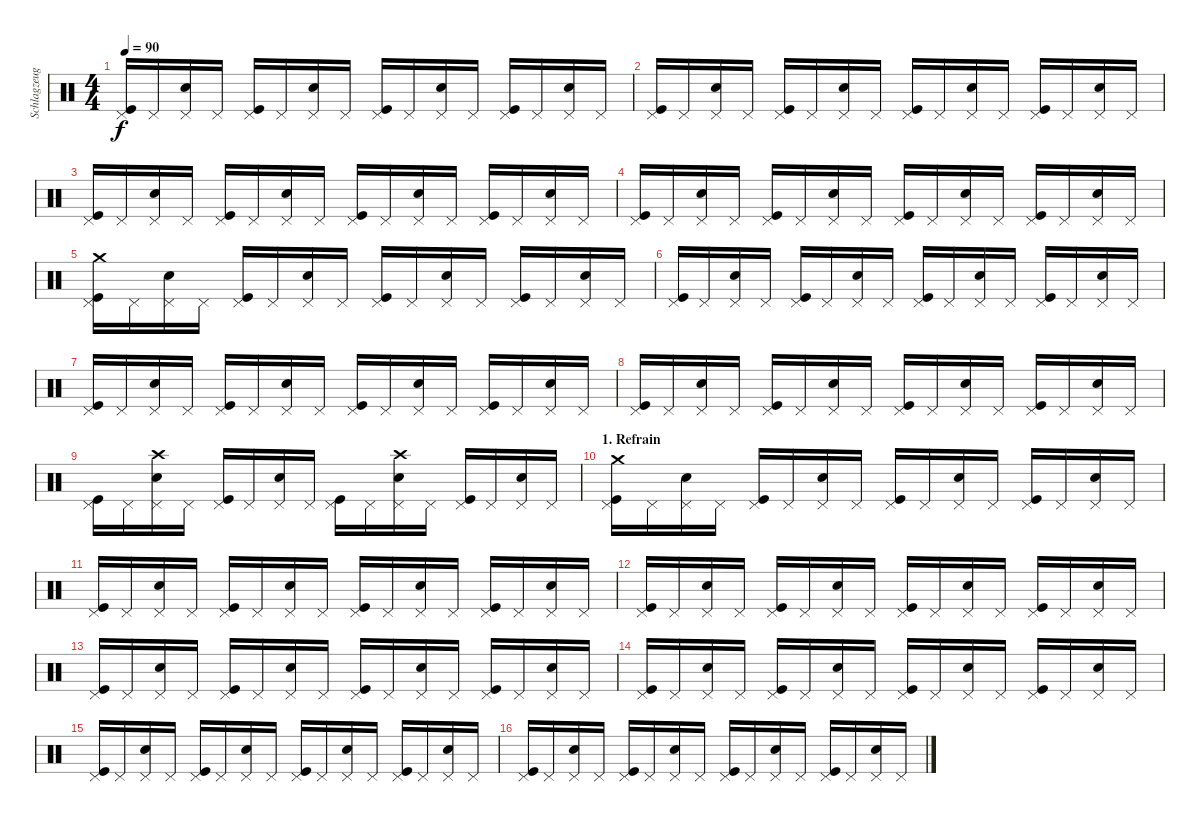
\track ("Schlagzeug" "Schlagzeug") {instrument percussion}
\staff {score}
\articulation defaults
\ts (4 4)
\tempo 90
\clef neutral
\ks c
("Pedal Hi-Hat (hit)" "Kick (hit)").16{dy f} "Pedal Hi-Hat (hit)".16 ("Pedal Hi-Hat (hit)" "Electric Snare (hit)").16 "Pedal Hi-Hat (hit)".16 ("Pedal Hi-Hat (hit)" "Kick (hit)").16 "Pedal Hi-Hat (hit)".16 ("Pedal Hi-Hat (hit)" "Electric Snare (hit)").16 "Pedal Hi-Hat (hit)".16 ("Pedal Hi-Hat (hit)" "Kick (hit)").16 "Pedal Hi-Hat (hit)".16 ("Pedal Hi-Hat (hit)" "Electric Snare (hit)").16 "Pedal Hi-Hat (hit)".16 ("Pedal Hi-Hat (hit)" "Kick (hit)").16 "Pedal Hi-Hat (hit)".16 ("Pedal Hi-Hat (hit)" "Electric Snare (hit)").16 "Pedal Hi-Hat (hit)".16 |
("Pedal Hi-Hat (hit)" "Kick (hit)").16 "Pedal Hi-Hat (hit)".16 ("Pedal Hi-Hat (hit)" "Electric Snare (hit)").16 "Pedal Hi-Hat (hit)".16 ("Pedal Hi-Hat (hit)" "Kick (hit)").16 "Pedal Hi-Hat (hit)".16 ("Pedal Hi-Hat (hit)" "Electric Snare (hit)").16 "Pedal Hi-Hat (hit)".16 ("Pedal Hi-Hat (hit)" "Kick (hit)").16 "Pedal Hi-Hat (hit)".16 ("Pedal Hi-Hat (hit)" "Electric Snare (hit)").16 "Pedal Hi-Hat (hit)".16 ("Pedal Hi-Hat (hit)" "Kick (hit)").16 "Pedal Hi-Hat (hit)".16 ("Pedal Hi-Hat (hit)" "Electric Snare (hit)").16 "Pedal Hi-Hat (hit)".16 |
("Pedal Hi-Hat (hit)" "Kick (hit)").16 "Pedal Hi-Hat (hit)".16 ("Pedal Hi-Hat (hit)" "Electric Snare (hit)").16 "Pedal Hi-Hat (hit)".16 ("Pedal Hi-Hat (hit)" "Kick (hit)").16 "Pedal Hi-Hat (hit)".16 ("Pedal Hi-Hat (hit)" "Electric Snare (hit)").16 "Pedal Hi-Hat (hit)".16 ("Pedal Hi-Hat (hit)" "Kick (hit)").16 "Pedal Hi-Hat (hit)".16 ("Pedal Hi-Hat (hit)" "Electric Snare (hit)").16 "Pedal Hi-Hat (hit)".16 ("Pedal Hi-Hat (hit)" "Kick (hit)").16 "Pedal Hi-Hat (hit)".16 ("Pedal Hi-Hat (hit)" "Electric Snare (hit)").16 "Pedal Hi-Hat (hit)".16 |
("Pedal Hi-Hat (hit)" "Kick (hit)").16 "Pedal Hi-Hat (hit)".16 ("Pedal Hi-Hat (hit)" "Electric Snare (hit)").16 "Pedal Hi-Hat (hit)".16 ("Pedal Hi-Hat (hit)" "Kick (hit)").16 "Pedal Hi-Hat (hit)".16 ("Pedal Hi-Hat (hit)" "Electric Snare (hit)").16 "Pedal Hi-Hat (hit)".16 ("Pedal Hi-Hat (hit)" "Kick (hit)").16 "Pedal Hi-Hat (hit)".16 ("Pedal Hi-Hat (hit)" "Electric Snare (hit)").16 "Pedal Hi-Hat (hit)".16 ("Pedal Hi-Hat (hit)" "Kick (hit)").16 "Pedal Hi-Hat (hit)".16 ("Pedal Hi-Hat (hit)" "Electric Snare (hit)").16 "Pedal Hi-Hat (hit)".16 |
("Pedal Hi-Hat (hit)" "Kick (hit)" "Crash medium (hit)").16 "Pedal Hi-Hat (hit)".16 ("Pedal Hi-Hat (hit)" "Electric Snare (hit)").16 "Pedal Hi-Hat (hit)".16 ("Pedal Hi-Hat (hit)" "Kick (hit)").16 "Pedal Hi-Hat (hit)".16 ("Pedal Hi-Hat (hit)" "Electric Snare (hit)").16 "Pedal Hi-Hat (hit)".16 ("Pedal Hi-Hat (hit)" "Kick (hit)").16 "Pedal Hi-Hat (hit)".16 ("Pedal Hi-Hat (hit)" "Electric Snare (hit)").16 "Pedal Hi-Hat (hit)".16 ("Pedal Hi-Hat (hit)" "Kick (hit)").16 "Pedal Hi-Hat (hit)".16 ("Pedal Hi-Hat (hit)" "Electric Snare (hit)").16 "Pedal Hi-Hat (hit)".16 |
("Pedal Hi-Hat (hit)" "Kick (hit)").16 "Pedal Hi-Hat (hit)".16 ("Pedal Hi-Hat (hit)" "Electric Snare (hit)").16 "Pedal Hi-Hat (hit)".16 ("Pedal Hi-Hat (hit)" "Kick (hit)").16 "Pedal Hi-Hat (hit)".16 ("Pedal Hi-Hat (hit)" "Electric Snare (hit)").16 "Pedal Hi-Hat (hit)".16 ("Pedal Hi-Hat (hit)" "Kick (hit)").16 "Pedal Hi-Hat (hit)".16 ("Pedal Hi-Hat (hit)" "Electric Snare (hit)").16 "Pedal Hi-Hat (hit)".16 ("Pedal Hi-Hat (hit)" "Kick (hit)").16 "Pedal Hi-Hat (hit)".16 ("Pedal Hi-Hat (hit)" "Electric Snare (hit)").16 "Pedal Hi-Hat (hit)".16 |
("Pedal Hi-Hat (hit)" "Kick (hit)").16 "Pedal Hi-Hat (hit)".16 ("Pedal Hi-Hat (hit)" "Electric Snare (hit)").16 "Pedal Hi-Hat (hit)".16 ("Pedal Hi-Hat (hit)" "Kick (hit)").16 "Pedal Hi-Hat (hit)".16 ("Pedal Hi-Hat (hit)" "Electric Snare (hit)").16 "Pedal Hi-Hat (hit)".16 ("Pedal Hi-Hat (hit)" "Kick (hit)").16 "Pedal Hi-Hat (hit)".16 ("Pedal Hi-Hat (hit)" "Electric Snare (hit)").16 "Pedal Hi-Hat (hit)".16 ("Pedal Hi-Hat (hit)" "Kick (hit)").16 "Pedal Hi-Hat (hit)".16 ("Pedal Hi-Hat (hit)" "Electric Snare (hit)").16 "Pedal Hi-Hat (hit)".16 |
("Pedal Hi-Hat (hit)" "Kick (hit)").16 "Pedal Hi-Hat (hit)".16 ("Pedal Hi-Hat (hit)" "Electric Snare (hit)").16 "Pedal Hi-Hat (hit)".16 ("Pedal Hi-Hat (hit)" "Kick (hit)").16 "Pedal Hi-Hat (hit)".16 ("Pedal Hi-Hat (hit)" "Electric Snare (hit)").16 "Pedal Hi-Hat (hit)".16 ("Pedal Hi-Hat (hit)" "Kick (hit)").16 "Pedal Hi-Hat (hit)".16 ("Pedal Hi-Hat (hit)" "Electric Snare (hit)").16 "Pedal Hi-Hat (hit)".16 ("Pedal Hi-Hat (hit)" "Kick (hit)").16 "Pedal Hi-Hat (hit)".16 ("Pedal Hi-Hat (hit)" "Electric Snare (hit)").16 "Pedal Hi-Hat (hit)".16 |
("Pedal Hi-Hat (hit)" "Kick (hit)").16 "Pedal Hi-Hat (hit)".16 ("Pedal Hi-Hat (hit)" "Electric Snare (hit)" "Crash high (hit)").16 "Pedal Hi-Hat (hit)".16 ("Pedal Hi-Hat (hit)" "Kick (hit)").16 "Pedal Hi-Hat (hit)".16 ("Pedal Hi-Hat (hit)" "Electric Snare (hit)").16 "Pedal Hi-Hat (hit)".16 ("Pedal Hi-Hat (hit)" "Kick (hit)").16 "Pedal Hi-Hat (hit)".16 ("Pedal Hi-Hat (hit)" "Electric Snare (hit)" "Crash high (hit)").16 "Pedal Hi-Hat (hit)".16 ("Pedal Hi-Hat (hit)" "Kick (hit)").16 "Pedal Hi-Hat (hit)".16 ("Pedal Hi-Hat (hit)" "Electric Snare (hit)").16 "Pedal Hi-Hat (hit)".16 |
\section ("" "1. Refrain")
("Pedal Hi-Hat (hit)" "Kick (hit)" "Crash medium (hit)").16 "Pedal Hi-Hat (hit)".16 ("Pedal Hi-Hat (hit)" "Electric Snare (hit)").16 "Pedal Hi-Hat (hit)".16 ("Pedal Hi-Hat (hit)" "Kick (hit)").16 "Pedal Hi-Hat (hit)".16 ("Pedal Hi-Hat (hit)" "Electric Snare (hit)").16 "Pedal Hi-Hat (hit)".16 ("Pedal Hi-Hat (hit)" "Kick (hit)").16 "Pedal Hi-Hat (hit)".16 ("Pedal Hi-Hat (hit)" "Electric Snare (hit)").16 "Pedal Hi-Hat (hit)".16 ("Pedal Hi-Hat (hit)" "Kick (hit)").16 "Pedal Hi-Hat (hit)".16 ("Pedal Hi-Hat (hit)" "Electric Snare (hit)").16 "Pedal Hi-Hat (hit)".16 |
("Pedal Hi-Hat (hit)" "Kick (hit)").16 "Pedal Hi-Hat (hit)".16 ("Pedal Hi-Hat (hit)" "Electric Snare (hit)").16 "Pedal Hi-Hat (hit)".16 ("Pedal Hi-Hat (hit)" "Kick (hit)").16 "Pedal Hi-Hat (hit)".16 ("Pedal Hi-Hat (hit)" "Electric Snare (hit)").16 "Pedal Hi-Hat (hit)".16 ("Pedal Hi-Hat (hit)" "Kick (hit)").16 "Pedal Hi-Hat (hit)".16 ("Pedal Hi-Hat (hit)" "Electric Snare (hit)").16 "Pedal Hi-Hat (hit)".16 ("Pedal Hi-Hat (hit)" "Kick (hit)").16 "Pedal Hi-Hat (hit)".16 ("Pedal Hi-Hat (hit)" "Electric Snare (hit)").16 "Pedal Hi-Hat (hit)".16 |
("Pedal Hi-Hat (hit)" "Kick (hit)").16 "Pedal Hi-Hat (hit)".16 ("Pedal Hi-Hat (hit)" "Electric Snare (hit)").16 "Pedal Hi-Hat (hit)".16 ("Pedal Hi-Hat (hit)" "Kick (hit)").16 "Pedal Hi-Hat (hit)".16 ("Pedal Hi-Hat (hit)" "Electric Snare (hit)").16 "Pedal Hi-Hat (hit)".16 ("Pedal Hi-Hat (hit)" "Kick (hit)").16 "Pedal Hi-Hat (hit)".16 ("Pedal Hi-Hat (hit)" "Electric Snare (hit)").16 "Pedal Hi-Hat (hit)".16 ("Pedal Hi-Hat (hit)" "Kick (hit)").16 "Pedal Hi-Hat (hit)".16 ("Pedal Hi-Hat (hit)" "Electric Snare (hit)").16 "Pedal Hi-Hat (hit)".16 |
("Pedal Hi-Hat (hit)" "Kick (hit)").16 "Pedal Hi-Hat (hit)".16 ("Pedal Hi-Hat (hit)" "Electric Snare (hit)").16 "Pedal Hi-Hat (hit)".16 ("Pedal Hi-Hat (hit)" "Kick (hit)").16 "Pedal Hi-Hat (hit)".16 ("Pedal Hi-Hat (hit)" "Electric Snare (hit)").16 "Pedal Hi-Hat (hit)".16 ("Pedal Hi-Hat (hit)" "Kick (hit)").16 "Pedal Hi-Hat (hit)".16 ("Pedal Hi-Hat (hit)" "Electric Snare (hit)").16 "Pedal Hi-Hat (hit)".16 ("Pedal Hi-Hat (hit)" "Kick (hit)").16 "Pedal Hi-Hat (hit)".16 ("Pedal Hi-Hat (hit)" "Electric Snare (hit)").16 "Pedal Hi-Hat (hit)".16 |
("Pedal Hi-Hat (hit)" "Kick (hit)").16 "Pedal Hi-Hat (hit)".16 ("Pedal Hi-Hat (hit)" "Electric Snare (hit)").16 "Pedal Hi-Hat (hit)".16 ("Pedal Hi-Hat (hit)" "Kick (hit)").16 "Pedal Hi-Hat (hit)".16 ("Pedal Hi-Hat (hit)" "Electric Snare (hit)").16 "Pedal Hi-Hat (hit)".16 ("Pedal Hi-Hat (hit)" "Kick (hit)").16 "Pedal Hi-Hat (hit)".16 ("Pedal Hi-Hat (hit)" "Electric Snare (hit)").16 "Pedal Hi-Hat (hit)".16 ("Pedal Hi-Hat (hit)" "Kick (hit)").16 "Pedal Hi-Hat (hit)".16 ("Pedal Hi-Hat (hit)" "Electric Snare (hit)").16 "Pedal Hi-Hat (hit)".16 |
("Pedal Hi-Hat (hit)" "Kick (hit)").16 "Pedal Hi-Hat (hit)".16 ("Pedal Hi-Hat (hit)" "Electric Snare (hit)").16 "Pedal Hi-Hat (hit)".16 ("Pedal Hi-Hat (hit)" "Kick (hit)").16 "Pedal Hi-Hat (hit)".16 ("Pedal Hi-Hat (hit)" "Electric Snare (hit)").16 "Pedal Hi-Hat (hit)".16 ("Pedal Hi-Hat (hit)" "Kick (hit)").16 "Pedal Hi-Hat (hit)".16 ("Pedal Hi-Hat (hit)" "Electric Snare (hit)").16 "Pedal Hi-Hat (hit)".16 ("Pedal Hi-Hat (hit)" "Kick (hit)").16 "Pedal Hi-Hat (hit)".16 ("Pedal Hi-Hat (hit)" "Electric Snare (hit)").16 "Pedal Hi-Hat (hit)".16 |
("Pedal Hi-Hat (hit)" "Kick (hit)").16 "Pedal Hi-Hat (hit)".16 ("Pedal Hi-Hat (hit)" "Electric Snare (hit)").16 "Pedal Hi-Hat (hit)".16 ("Pedal Hi-Hat (hit)" "Kick (hit)").16 "Pedal Hi-Hat (hit)".16 ("Pedal Hi-Hat (hit)" "Electric Snare (hit)").16 "Pedal Hi-Hat (hit)".16 ("Pedal Hi-Hat (hit)" "Kick (hit)").16 "Pedal Hi-Hat (hit)".16 ("Pedal Hi-Hat (hit)" "Electric Snare (hit)").16 "Pedal Hi-Hat (hit)".16 ("Pedal Hi-Hat (hit)" "Kick (hit)").16 "Pedal Hi-Hat (hit)".16 ("Pedal Hi-Hat (hit)" "Electric Snare (hit)").16 "Pedal Hi-Hat (hit)".16
